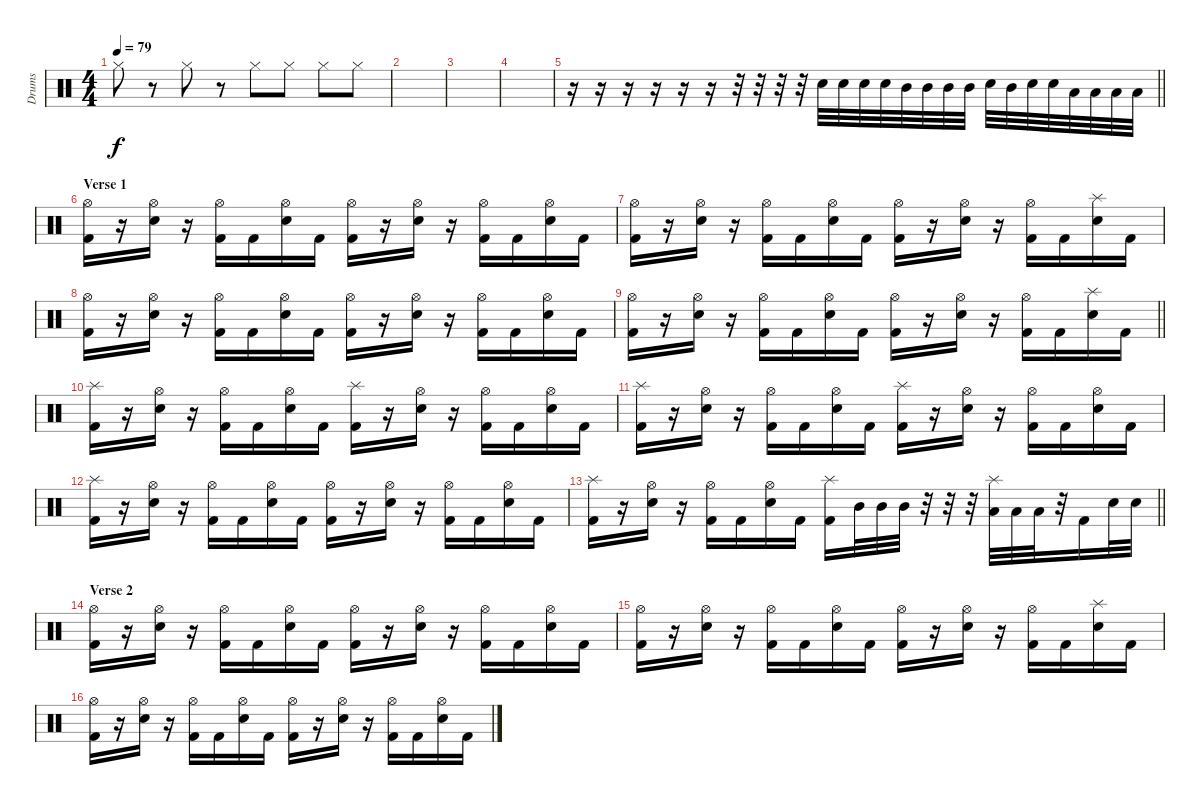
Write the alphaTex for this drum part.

\track ("Drums" "Drums") {instrument percussion}
\staff {score}
\articulation defaults
\ts (4 4)
\tempo 79
\clef neutral
\ks c "Hi-Hat (closed)".8{dy f}
r.8 "Hi-Hat (closed)".8 r.8 "Hi-Hat (closed)".8 "Hi-Hat (closed)".8 "Hi-Hat (closed)".8 "Hi-Hat (closed)".8 |
|
|
|
\barLineRight lightlight
r.16 r.16 r.16 r.16 r.16 r.16 r.32 r.32 r.32 r.32 "Electric Snare (hit)".32 "Electric Snare (hit)".32 "Electric Snare (hit)".32 "Electric Snare (hit)".32 "Mid Tom (hit)".32 "Mid Tom (hit)".32 "Mid Tom (hit)".32 "Mid Tom (hit)".32 "Electric Snare (hit)".32 "Mid Tom (hit)".32 "Electric Snare (hit)".32 "Electric Snare (hit)".32 "Low Tom (hit)".32 "Low Tom (hit)".32 "Low Tom (hit)".32 "Low Tom (hit)".32 |
\section ("" "Verse 1")
("Hi-Hat (open)" "Kick (hit) 2").16 r.16 ("Hi-Hat (open)" "Electric Snare (hit)").16 r.16 ("Hi-Hat (open)" "Kick (hit) 2").16 "Kick (hit) 2".16 ("Hi-Hat (open)" "Electric Snare (hit)").16 "Kick (hit) 2".16 ("Hi-Hat (open)" "Kick (hit) 2").16 r.16 ("Hi-Hat (open)" "Electric Snare (hit)").16 r.16 ("Hi-Hat (open)" "Kick (hit) 2").16 "Kick (hit) 2".16 ("Hi-Hat (open)" "Electric Snare (hit)").16 "Kick (hit) 2".16 |
("Hi-Hat (open)" "Kick (hit) 2").16 r.16 ("Hi-Hat (open)" "Electric Snare (hit)").16 r.16 ("Hi-Hat (open)" "Kick (hit) 2").16 "Kick (hit) 2".16 ("Hi-Hat (open)" "Electric Snare (hit)").16 "Kick (hit) 2".16 ("Hi-Hat (open)" "Kick (hit) 2").16 r.16 ("Hi-Hat (open)" "Electric Snare (hit)").16 r.16 ("Hi-Hat (open)" "Kick (hit) 2").16 "Kick (hit) 2".16 ("Splash (hit)" "Electric Snare (hit)").16 "Kick (hit) 2".16 |
("Hi-Hat (open)" "Kick (hit) 2").16 r.16 ("Hi-Hat (open)" "Electric Snare (hit)").16 r.16 ("Hi-Hat (open)" "Kick (hit) 2").16 "Kick (hit) 2".16 ("Hi-Hat (open)" "Electric Snare (hit)").16 "Kick (hit) 2".16 ("Hi-Hat (open)" "Kick (hit) 2").16 r.16 ("Hi-Hat (open)" "Electric Snare (hit)").16 r.16 ("Hi-Hat (open)" "Kick (hit) 2").16 "Kick (hit) 2".16 ("Hi-Hat (open)" "Electric Snare (hit)").16 "Kick (hit) 2".16 |
\barLineRight lightlight
("Hi-Hat (open)" "Kick (hit) 2").16 r.16 ("Hi-Hat (open)" "Electric Snare (hit)").16 r.16 ("Hi-Hat (open)" "Kick (hit) 2").16 "Kick (hit) 2".16 ("Hi-Hat (open)" "Electric Snare (hit)").16 "Kick (hit) 2".16 ("Hi-Hat (open)" "Kick (hit) 2").16 r.16 ("Hi-Hat (open)" "Electric Snare (hit)").16 r.16 ("Hi-Hat (open)" "Kick (hit) 2").16 "Kick (hit) 2".16 ("Splash (hit)" "Electric Snare (hit)").16 "Kick (hit) 2".16 |
("Splash (hit)" "Kick (hit) 2").16 r.16 ("Hi-Hat (open)" "Electric Snare (hit)").16 r.16 ("Hi-Hat (open)" "Kick (hit) 2").16 "Kick (hit) 2".16 ("Hi-Hat (open)" "Electric Snare (hit)").16 "Kick (hit) 2".16 ("Splash (hit)" "Kick (hit) 2").16 r.16 ("Hi-Hat (open)" "Electric Snare (hit)").16 r.16 ("Hi-Hat (open)" "Kick (hit) 2").16 "Kick (hit) 2".16 ("Hi-Hat (open)" "Electric Snare (hit)").16 "Kick (hit) 2".16 |
("Splash (hit)" "Kick (hit) 2").16 r.16 ("Hi-Hat (open)" "Electric Snare (hit)").16 r.16 ("Hi-Hat (open)" "Kick (hit) 2").16 "Kick (hit) 2".16 ("Hi-Hat (open)" "Electric Snare (hit)").16 "Kick (hit) 2".16 ("Splash (hit)" "Kick (hit) 2").16 r.16 ("Hi-Hat (open)" "Electric Snare (hit)").16 r.16 ("Hi-Hat (open)" "Kick (hit) 2").16 "Kick (hit) 2".16 ("Hi-Hat (open)" "Electric Snare (hit)").16 "Kick (hit) 2".16 |
("Splash (hit)" "Kick (hit) 2").16 r.16 ("Hi-Hat (open)" "Electric Snare (hit)").16 r.16 ("Hi-Hat (open)" "Kick (hit) 2").16 "Kick (hit) 2".16 ("Hi-Hat (open)" "Electric Snare (hit)").16 "Kick (hit) 2".16 ("Hi-Hat (open)" "Kick (hit) 2").16 r.16 ("Hi-Hat (open)" "Electric Snare (hit)").16 r.16 ("Hi-Hat (open)" "Kick (hit) 2").16 "Kick (hit) 2".16 ("Hi-Hat (open)" "Electric Snare (hit)").16 "Kick (hit) 2".16 |
\barLineRight lightlight
("Splash (hit)" "Kick (hit) 2").16 r.16 ("Hi-Hat (open)" "Electric Snare (hit)").16 r.16 ("Hi-Hat (open)" "Kick (hit) 2").16 "Kick (hit) 2".16 ("Hi-Hat (open)" "Electric Snare (hit)").16 "Kick (hit) 2".16 ("Splash (hit)" "Kick (hit) 2").16 "Mid Tom (hit)".32 "Mid Tom (hit)".32 "Mid Tom (hit)".32 r.32 r.32 r.32 ("Splash (hit)" "Low Tom (hit)").32 "Low Tom (hit)".32 "Low Tom (hit)".32 r.32 "Kick (hit) 2".16 "Electric Snare (hit)".32 "Electric Snare (hit)".32 |
\section ("" "Verse 2")
("Hi-Hat (open)" "Kick (hit) 2").16 r.16 ("Hi-Hat (open)" "Electric Snare (hit)").16 r.16 ("Hi-Hat (open)" "Kick (hit) 2").16 "Kick (hit) 2".16 ("Hi-Hat (open)" "Electric Snare (hit)").16 "Kick (hit) 2".16 ("Hi-Hat (open)" "Kick (hit) 2").16 r.16 ("Hi-Hat (open)" "Electric Snare (hit)").16 r.16 ("Hi-Hat (open)" "Kick (hit) 2").16 "Kick (hit) 2".16 ("Hi-Hat (open)" "Electric Snare (hit)").16 "Kick (hit) 2".16 |
("Hi-Hat (open)" "Kick (hit) 2").16 r.16 ("Hi-Hat (open)" "Electric Snare (hit)").16 r.16 ("Hi-Hat (open)" "Kick (hit) 2").16 "Kick (hit) 2".16 ("Hi-Hat (open)" "Electric Snare (hit)").16 "Kick (hit) 2".16 ("Hi-Hat (open)" "Kick (hit) 2").16 r.16 ("Hi-Hat (open)" "Electric Snare (hit)").16 r.16 ("Hi-Hat (open)" "Kick (hit) 2").16 "Kick (hit) 2".16 ("Splash (hit)" "Electric Snare (hit)").16 "Kick (hit) 2".16 |
("Hi-Hat (open)" "Kick (hit) 2").16 r.16 ("Hi-Hat (open)" "Electric Snare (hit)").16 r.16 ("Hi-Hat (open)" "Kick (hit) 2").16 "Kick (hit) 2".16 ("Hi-Hat (open)" "Electric Snare (hit)").16 "Kick (hit) 2".16 ("Hi-Hat (open)" "Kick (hit) 2").16 r.16 ("Hi-Hat (open)" "Electric Snare (hit)").16 r.16 ("Hi-Hat (open)" "Kick (hit) 2").16 "Kick (hit) 2".16 ("Hi-Hat (open)" "Electric Snare (hit)").16 "Kick (hit) 2".16
